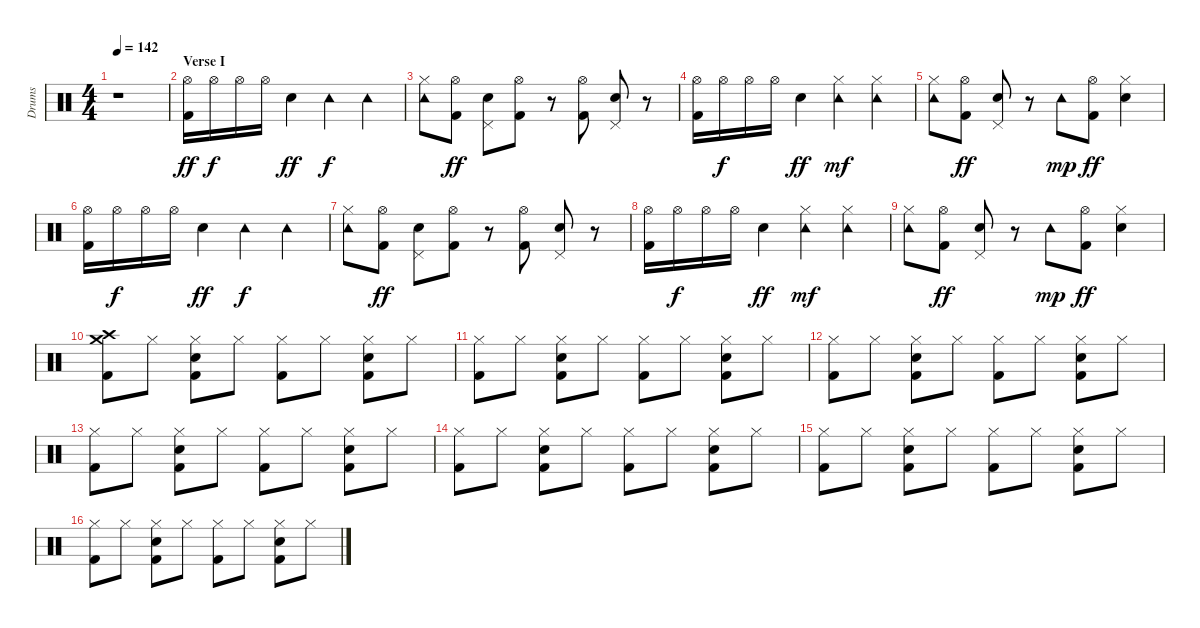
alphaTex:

\track ("Drums" "Drums") {instrument percussion}
\staff {score}
\articulation defaults
\ts (4 4)
\tempo 142
\clef neutral
\ks c
r.1{dy ff} |
\section ("" "Verse I")
("Hi-Hat (open)" "Kick (hit) 2").16 "Hi-Hat (open)".16{dy f} "Hi-Hat (open)".16 "Hi-Hat (open)".16 "Snare (hit) 2".4{dy ff} "Tambourine (hit)".4{dy f} "Tambourine (hit)".4 |
("Tambourine (hit)" "Hi-Hat (closed)").8 ("Hi-Hat (open)" "Kick (hit) 2").8{dy ff} ("Pedal Hi-Hat (hit)" "Snare (hit) 2").8 ("Hi-Hat (open)" "Kick (hit) 2").8 r.8 ("Hi-Hat (open)" "Kick (hit) 2").8 ("Pedal Hi-Hat (hit)" "Snare (hit) 2").8 r.8 |
("Hi-Hat (open)" "Kick (hit) 2").16 "Hi-Hat (open)".16{dy f} "Hi-Hat (open)".16 "Hi-Hat (open)".16 "Snare (hit) 2".4{dy ff} ("Tambourine (hit)" "Hi-Hat (closed)").4{dy mf} ("Tambourine (hit)" "Hi-Hat (closed)").4 |
("Tambourine (hit)" "Hi-Hat (closed)").8 ("Hi-Hat (open)" "Kick (hit) 2").8{dy ff} ("Pedal Hi-Hat (hit)" "Snare (hit) 2").8 r.8 "Tambourine (hit)".8{dy mp} ("Hi-Hat (open)" "Kick (hit) 2").8{dy ff} ("Hi-Hat (closed)" "Snare (hit) 2").4 |
("Hi-Hat (open)" "Kick (hit) 2").16 "Hi-Hat (open)".16{dy f} "Hi-Hat (open)".16 "Hi-Hat (open)".16 "Snare (hit) 2".4{dy ff} "Tambourine (hit)".4{dy f} "Tambourine (hit)".4 |
("Tambourine (hit)" "Hi-Hat (closed)").8 ("Hi-Hat (open)" "Kick (hit) 2").8{dy ff} ("Pedal Hi-Hat (hit)" "Snare (hit) 2").8 ("Hi-Hat (open)" "Kick (hit) 2").8 r.8 ("Hi-Hat (open)" "Kick (hit) 2").8 ("Pedal Hi-Hat (hit)" "Snare (hit) 2").8 r.8 |
("Hi-Hat (open)" "Kick (hit) 2").16 "Hi-Hat (open)".16{dy f} "Hi-Hat (open)".16 "Hi-Hat (open)".16 "Snare (hit) 2".4{dy ff} ("Tambourine (hit)" "Hi-Hat (closed)").4{dy mf} ("Tambourine (hit)" "Hi-Hat (closed)").4 |
("Tambourine (hit)" "Hi-Hat (closed)").8 ("Hi-Hat (open)" "Kick (hit) 2").8{dy ff} ("Pedal Hi-Hat (hit)" "Snare (hit) 2").8 r.8 "Tambourine (hit)".8{dy mp} ("Hi-Hat (open)" "Kick (hit) 2").8{dy ff} ("Hi-Hat (closed)" "Snare (hit) 2").4 |
("Crash high (hit)" "Crash medium (hit)" "Kick (hit) 2").8 "Hi-Hat (closed)".8 ("Hi-Hat (closed)" "Snare (hit) 2" "Kick (hit) 2").8 "Hi-Hat (closed)".8 ("Hi-Hat (closed)" "Kick (hit) 2").8 "Hi-Hat (closed)".8 ("Hi-Hat (closed)" "Snare (hit) 2" "Kick (hit) 2").8 "Hi-Hat (closed)".8 |
("Hi-Hat (closed)" "Kick (hit) 2").8 "Hi-Hat (closed)".8 ("Hi-Hat (closed)" "Snare (hit) 2" "Kick (hit) 2").8 "Hi-Hat (closed)".8 ("Hi-Hat (closed)" "Kick (hit) 2").8 "Hi-Hat (closed)".8 ("Hi-Hat (closed)" "Snare (hit) 2" "Kick (hit) 2").8 "Hi-Hat (closed)".8 |
("Hi-Hat (closed)" "Kick (hit) 2").8 "Hi-Hat (closed)".8 ("Hi-Hat (closed)" "Snare (hit) 2" "Kick (hit) 2").8 "Hi-Hat (closed)".8 ("Hi-Hat (closed)" "Kick (hit) 2").8 "Hi-Hat (closed)".8 ("Hi-Hat (closed)" "Snare (hit) 2" "Kick (hit) 2").8 "Hi-Hat (closed)".8 |
("Hi-Hat (closed)" "Kick (hit) 2").8 "Hi-Hat (closed)".8 ("Hi-Hat (closed)" "Snare (hit) 2" "Kick (hit) 2").8 "Hi-Hat (closed)".8 ("Hi-Hat (closed)" "Kick (hit) 2").8 "Hi-Hat (closed)".8 ("Hi-Hat (closed)" "Snare (hit) 2" "Kick (hit) 2").8 "Hi-Hat (closed)".8 |
("Hi-Hat (closed)" "Kick (hit) 2").8 "Hi-Hat (closed)".8 ("Hi-Hat (closed)" "Snare (hit) 2" "Kick (hit) 2").8 "Hi-Hat (closed)".8 ("Hi-Hat (closed)" "Kick (hit) 2").8 "Hi-Hat (closed)".8 ("Hi-Hat (closed)" "Snare (hit) 2" "Kick (hit) 2").8 "Hi-Hat (closed)".8 |
("Hi-Hat (closed)" "Kick (hit) 2").8 "Hi-Hat (closed)".8 ("Hi-Hat (closed)" "Snare (hit) 2" "Kick (hit) 2").8 "Hi-Hat (closed)".8 ("Hi-Hat (closed)" "Kick (hit) 2").8 "Hi-Hat (closed)".8 ("Hi-Hat (closed)" "Snare (hit) 2" "Kick (hit) 2").8 "Hi-Hat (closed)".8 |
("Hi-Hat (closed)" "Kick (hit) 2").8 "Hi-Hat (closed)".8 ("Hi-Hat (closed)" "Snare (hit) 2" "Kick (hit) 2").8 "Hi-Hat (closed)".8 ("Hi-Hat (closed)" "Kick (hit) 2").8 "Hi-Hat (closed)".8 ("Hi-Hat (closed)" "Snare (hit) 2" "Kick (hit) 2").8 "Hi-Hat (closed)".8
